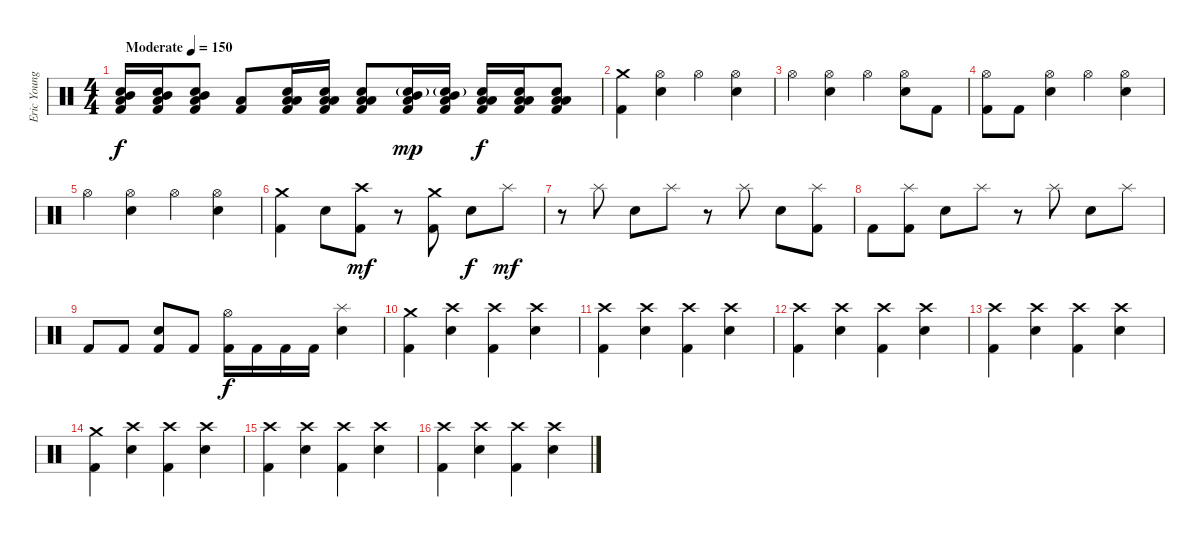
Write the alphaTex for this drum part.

\track ("Eric Young" "Eric Young") {instrument percussion}
\staff {score}
\articulation defaults
\ts (4 4)
\tempo (150 "Moderate")
\clef neutral
\ks c
("Mid Tom (hit)" "Snare (hit) 2" "Low Tom (hit)" "Kick (hit) 2").16{dy f} ("Mid Tom (hit)" "Snare (hit) 2" "Low Tom (hit)" "Kick (hit) 2").16 ("Mid Tom (hit)" "Snare (hit) 2" "Low Tom (hit)" "Kick (hit) 2").8 ("Low Tom (hit)" "Kick (hit) 2").8 ("Low Tom (hit)" "Snare (hit) 2" "Low Tom (hit)" "Kick (hit) 2").16 ("Low Tom (hit)" "Snare (hit) 2" "Low Tom (hit)" "Kick (hit) 2").16 ("Low Tom (hit)" "Snare (hit) 2" "Low Tom (hit)" "Kick (hit) 2").8 ("Low Tom (hit)" "Mid Tom (hit)" "Snare (hit) 2"{g} "Kick (hit) 2").16{dy mp} ("Low Tom (hit)" "Mid Tom (hit)" "Snare (hit) 2"{g} "Kick (hit) 2").16 ("Low Tom (hit)" "Snare (hit) 2" "Low Tom (hit)" "Kick (hit) 2").16{dy f} ("Low Tom (hit)" "Snare (hit) 2" "Low Tom (hit)" "Kick (hit) 2").16 ("Low Tom (hit)" "Snare (hit) 2" "Low Tom (hit)" "Kick (hit) 2").8 |
("Crash medium (hit)" "Kick (hit) 2").4 ("Hi-Hat (open)" "Electric Snare (hit)").4 "Hi-Hat (open)".4 ("Hi-Hat (open)" "Electric Snare (hit)").4 |
"Hi-Hat (open)".4 ("Hi-Hat (open)" "Electric Snare (hit)").4 "Hi-Hat (open)".4 ("Hi-Hat (open)" "Electric Snare (hit)").8 "Kick (hit) 2".8 |
("Hi-Hat (open)" "Kick (hit) 2").8 "Kick (hit) 2".8 ("Hi-Hat (open)" "Electric Snare (hit)").4 "Hi-Hat (open)".4 ("Hi-Hat (open)" "Electric Snare (hit)").4 |
"Hi-Hat (open)".4 ("Hi-Hat (open)" "Electric Snare (hit)").4 "Hi-Hat (open)".4 ("Hi-Hat (open)" "Electric Snare (hit)").4 |
("Crash medium (hit)" "Kick (hit) 2").4 "Electric Snare (hit)".8 ("Crash high (hit)" "Kick (hit) 2").8{dy mf} r.8 ("Crash medium (hit)" "Kick (hit) 2").8 "Electric Snare (hit)".8{dy f} "Splash (hit)".8{dy mf} |
r.8 "Splash (hit)".8 "Electric Snare (hit)".8 "Splash (hit)".8 r.8 "Splash (hit)".8 "Electric Snare (hit)".8 ("Splash (hit)" "Kick (hit) 2").8 |
"Kick (hit) 2".8 ("Splash (hit)" "Kick (hit) 2").8 "Electric Snare (hit)".8 "Splash (hit)".8 r.8 "Splash (hit)".8 "Electric Snare (hit)".8 "Splash (hit)".8 |
"Kick (hit) 2".8 "Kick (hit) 2".8 ("Electric Snare (hit)" "Kick (hit) 2").8 "Kick (hit) 2".8 ("Hi-Hat (open)" "Kick (hit) 2").16{dy f} "Kick (hit) 2".16 "Kick (hit) 2".16 "Kick (hit) 2".16 ("Splash (hit)" "Electric Snare (hit)").4 |
("Crash medium (hit)" "Kick (hit) 2").4 ("Crash high (hit)" "Electric Snare (hit)").4 ("Crash high (hit)" "Kick (hit) 2").4 ("Crash high (hit)" "Electric Snare (hit)").4 |
("Crash high (hit)" "Kick (hit) 2").4 ("Crash high (hit)" "Electric Snare (hit)").4 ("Crash high (hit)" "Kick (hit) 2").4 ("Crash high (hit)" "Electric Snare (hit)").4 |
("Crash high (hit)" "Kick (hit) 2").4 ("Crash high (hit)" "Electric Snare (hit)").4 ("Crash high (hit)" "Kick (hit) 2").4 ("Crash high (hit)" "Electric Snare (hit)").4 |
("Crash high (hit)" "Kick (hit) 2").4 ("Crash high (hit)" "Electric Snare (hit)").4 ("Crash high (hit)" "Kick (hit) 2").4 ("Crash high (hit)" "Electric Snare (hit)").4 |
("Crash medium (hit)" "Kick (hit) 2").4 ("Crash high (hit)" "Electric Snare (hit)").4 ("Crash high (hit)" "Kick (hit) 2").4 ("Crash high (hit)" "Electric Snare (hit)").4 |
("Crash high (hit)" "Kick (hit) 2").4 ("Crash high (hit)" "Electric Snare (hit)").4 ("Crash high (hit)" "Kick (hit) 2").4 ("Crash high (hit)" "Electric Snare (hit)").4 |
("Crash high (hit)" "Kick (hit) 2").4 ("Crash high (hit)" "Electric Snare (hit)").4 ("Crash high (hit)" "Kick (hit) 2").4 ("Crash high (hit)" "Electric Snare (hit)").4
